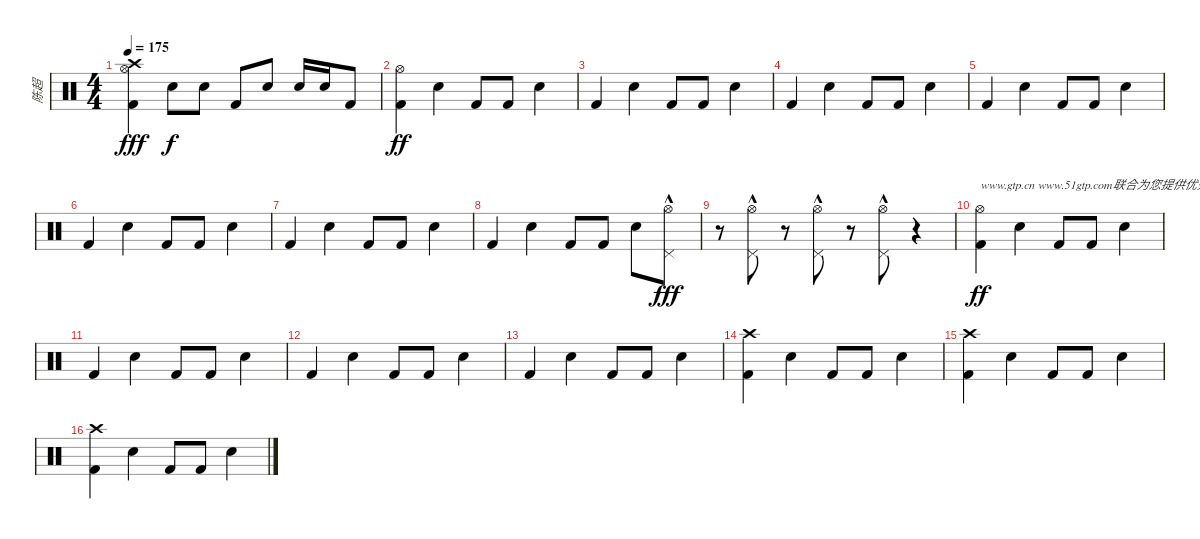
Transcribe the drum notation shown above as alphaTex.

\track ("陈超" "陈超") {instrument percussion}
\staff {score}
\articulation defaults
\ts (4 4)
\tempo 175
\clef neutral
\ks c
("Crash high (hit)" "Hi-Hat (open)" "Kick (hit) 2").4{dy fff} "Electric Snare (hit)".8{dy f} "Electric Snare (hit)".8 "Kick (hit) 2".8 "Electric Snare (hit)".8 "Electric Snare (hit)".16 "Electric Snare (hit)".16 "Kick (hit) 2".8 |
("Hi-Hat (open)" "Kick (hit) 2").4{dy ff} "Electric Snare (hit)".4 "Kick (hit) 2".8 "Kick (hit) 2".8 "Electric Snare (hit)".4 |
"Kick (hit) 2".4 "Electric Snare (hit)".4 "Kick (hit) 2".8 "Kick (hit) 2".8 "Electric Snare (hit)".4 |
"Kick (hit) 2".4 "Electric Snare (hit)".4 "Kick (hit) 2".8 "Kick (hit) 2".8 "Electric Snare (hit)".4 |
"Kick (hit) 2".4 "Electric Snare (hit)".4 "Kick (hit) 2".8 "Kick (hit) 2".8 "Electric Snare (hit)".4 |
"Kick (hit) 2".4 "Electric Snare (hit)".4 "Kick (hit) 2".8 "Kick (hit) 2".8 "Electric Snare (hit)".4 |
"Kick (hit) 2".4 "Electric Snare (hit)".4 "Kick (hit) 2".8 "Kick (hit) 2".8 "Electric Snare (hit)".4 |
"Kick (hit) 2".4 "Electric Snare (hit)".4 "Kick (hit) 2".8 "Kick (hit) 2".8 "Electric Snare (hit)".8 ("Hi-Hat (open)"{hac} "Pedal Hi-Hat (hit)"{hac}).8{dy fff} |
r.8 ("Hi-Hat (open)"{hac} "Pedal Hi-Hat (hit)"{hac}).8 r.8 ("Hi-Hat (open)"{hac} "Pedal Hi-Hat (hit)"{hac}).8 r.8 ("Hi-Hat (open)"{hac} "Pedal Hi-Hat (hit)"{hac}).8 r.4 |
("Hi-Hat (open)" "Kick (hit) 2").4{txt "www.gtp.cn www.51gtp.com联合为您提供优秀的GTP!" dy ff} "Electric Snare (hit)".4 "Kick (hit) 2".8 "Kick (hit) 2".8 "Electric Snare (hit)".4 |
"Kick (hit) 2".4 "Electric Snare (hit)".4 "Kick (hit) 2".8 "Kick (hit) 2".8 "Electric Snare (hit)".4 |
"Kick (hit) 2".4 "Electric Snare (hit)".4 "Kick (hit) 2".8 "Kick (hit) 2".8 "Electric Snare (hit)".4 |
"Kick (hit) 2".4 "Electric Snare (hit)".4 "Kick (hit) 2".8 "Kick (hit) 2".8 "Electric Snare (hit)".4 |
("Crash high (hit)" "Kick (hit) 2").4 "Electric Snare (hit)".4 "Kick (hit) 2".8 "Kick (hit) 2".8 "Electric Snare (hit)".4 |
("Crash high (hit)" "Kick (hit) 2").4 "Electric Snare (hit)".4 "Kick (hit) 2".8 "Kick (hit) 2".8 "Electric Snare (hit)".4 |
("Crash high (hit)" "Kick (hit) 2").4 "Electric Snare (hit)".4 "Kick (hit) 2".8 "Kick (hit) 2".8 "Electric Snare (hit)".4
